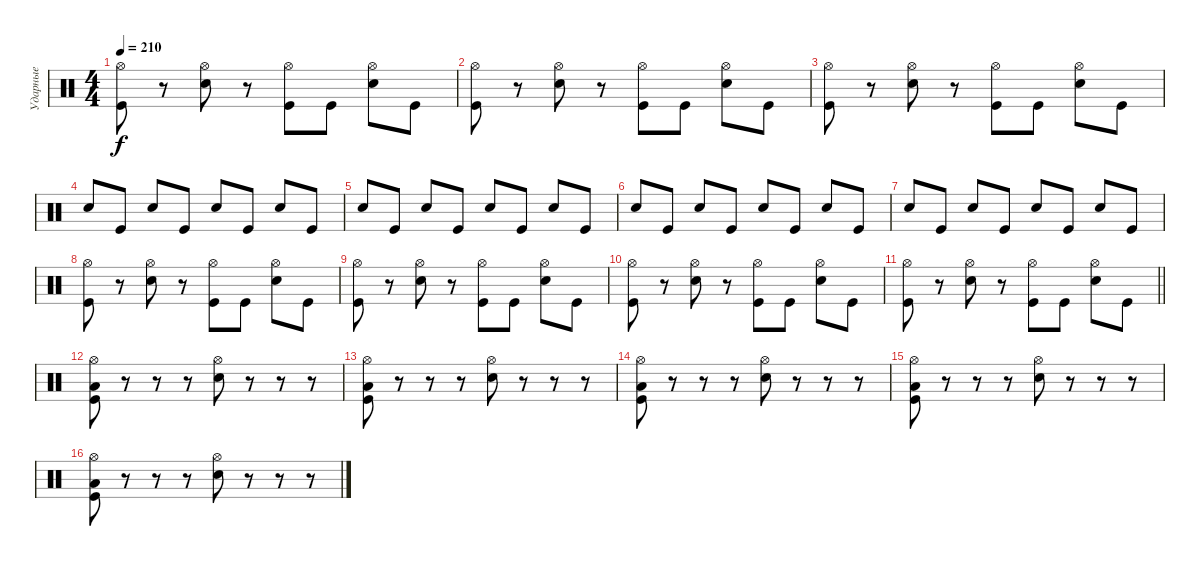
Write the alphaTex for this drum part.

\track ("Ударные" "Ударные") {instrument percussion}
\staff {score}
\articulation defaults
\ts (4 4)
\tempo 210
\clef neutral
\ks c
("Hi-Hat (open)" "Kick (hit)").8{dy f} r.8 ("Hi-Hat (open)" "Electric Snare (hit)").8 r.8 ("Hi-Hat (open)" "Kick (hit)").8 "Kick (hit)".8 ("Hi-Hat (open)" "Electric Snare (hit)").8 "Kick (hit)".8 |
("Hi-Hat (open)" "Kick (hit)").8 r.8 ("Hi-Hat (open)" "Electric Snare (hit)").8 r.8 ("Hi-Hat (open)" "Kick (hit)").8 "Kick (hit)".8 ("Hi-Hat (open)" "Electric Snare (hit)").8 "Kick (hit)".8 |
("Hi-Hat (open)" "Kick (hit)").8 r.8 ("Hi-Hat (open)" "Electric Snare (hit)").8 r.8 ("Hi-Hat (open)" "Kick (hit)").8 "Kick (hit)".8 ("Hi-Hat (open)" "Electric Snare (hit)").8 "Kick (hit)".8 |
"Electric Snare (hit)".8 "Kick (hit)".8 "Electric Snare (hit)".8 "Kick (hit)".8 "Electric Snare (hit)".8 "Kick (hit)".8 "Electric Snare (hit)".8 "Kick (hit)".8 |
"Electric Snare (hit)".8 "Kick (hit)".8 "Electric Snare (hit)".8 "Kick (hit)".8 "Electric Snare (hit)".8 "Kick (hit)".8 "Electric Snare (hit)".8 "Kick (hit)".8 |
"Electric Snare (hit)".8 "Kick (hit)".8 "Electric Snare (hit)".8 "Kick (hit)".8 "Electric Snare (hit)".8 "Kick (hit)".8 "Electric Snare (hit)".8 "Kick (hit)".8 |
"Electric Snare (hit)".8 "Kick (hit)".8 "Electric Snare (hit)".8 "Kick (hit)".8 "Electric Snare (hit)".8 "Kick (hit)".8 "Electric Snare (hit)".8 "Kick (hit)".8 |
("Hi-Hat (open)" "Kick (hit)").8 r.8 ("Hi-Hat (open)" "Electric Snare (hit)").8 r.8 ("Hi-Hat (open)" "Kick (hit)").8 "Kick (hit)".8 ("Hi-Hat (open)" "Electric Snare (hit)").8 "Kick (hit)".8 |
("Hi-Hat (open)" "Kick (hit)").8 r.8 ("Hi-Hat (open)" "Electric Snare (hit)").8 r.8 ("Hi-Hat (open)" "Kick (hit)").8 "Kick (hit)".8 ("Hi-Hat (open)" "Electric Snare (hit)").8 "Kick (hit)".8 |
("Hi-Hat (open)" "Kick (hit)").8 r.8 ("Hi-Hat (open)" "Electric Snare (hit)").8 r.8 ("Hi-Hat (open)" "Kick (hit)").8 "Kick (hit)".8 ("Hi-Hat (open)" "Electric Snare (hit)").8 "Kick (hit)".8 |
\barLineRight lightlight
("Hi-Hat (open)" "Kick (hit)").8 r.8 ("Hi-Hat (open)" "Electric Snare (hit)").8 r.8 ("Hi-Hat (open)" "Kick (hit)").8 "Kick (hit)".8 ("Hi-Hat (open)" "Electric Snare (hit)").8 "Kick (hit)".8 |
("Hi-Hat (open)" "Low Tom (hit)" "Kick (hit)").8 r.8 r.8 r.8 ("Hi-Hat (open)" "Electric Snare (hit)").8 r.8 r.8 r.8 |
("Hi-Hat (open)" "Low Tom (hit)" "Kick (hit)").8 r.8 r.8 r.8 ("Hi-Hat (open)" "Electric Snare (hit)").8 r.8 r.8 r.8 |
("Hi-Hat (open)" "Low Tom (hit)" "Kick (hit)").8 r.8 r.8 r.8 ("Hi-Hat (open)" "Electric Snare (hit)").8 r.8 r.8 r.8 |
("Hi-Hat (open)" "Low Tom (hit)" "Kick (hit)").8 r.8 r.8 r.8 ("Hi-Hat (open)" "Electric Snare (hit)").8 r.8 r.8 r.8 |
("Hi-Hat (open)" "Low Tom (hit)" "Kick (hit)").8 r.8 r.8 r.8 ("Hi-Hat (open)" "Electric Snare (hit)").8 r.8 r.8 r.8
